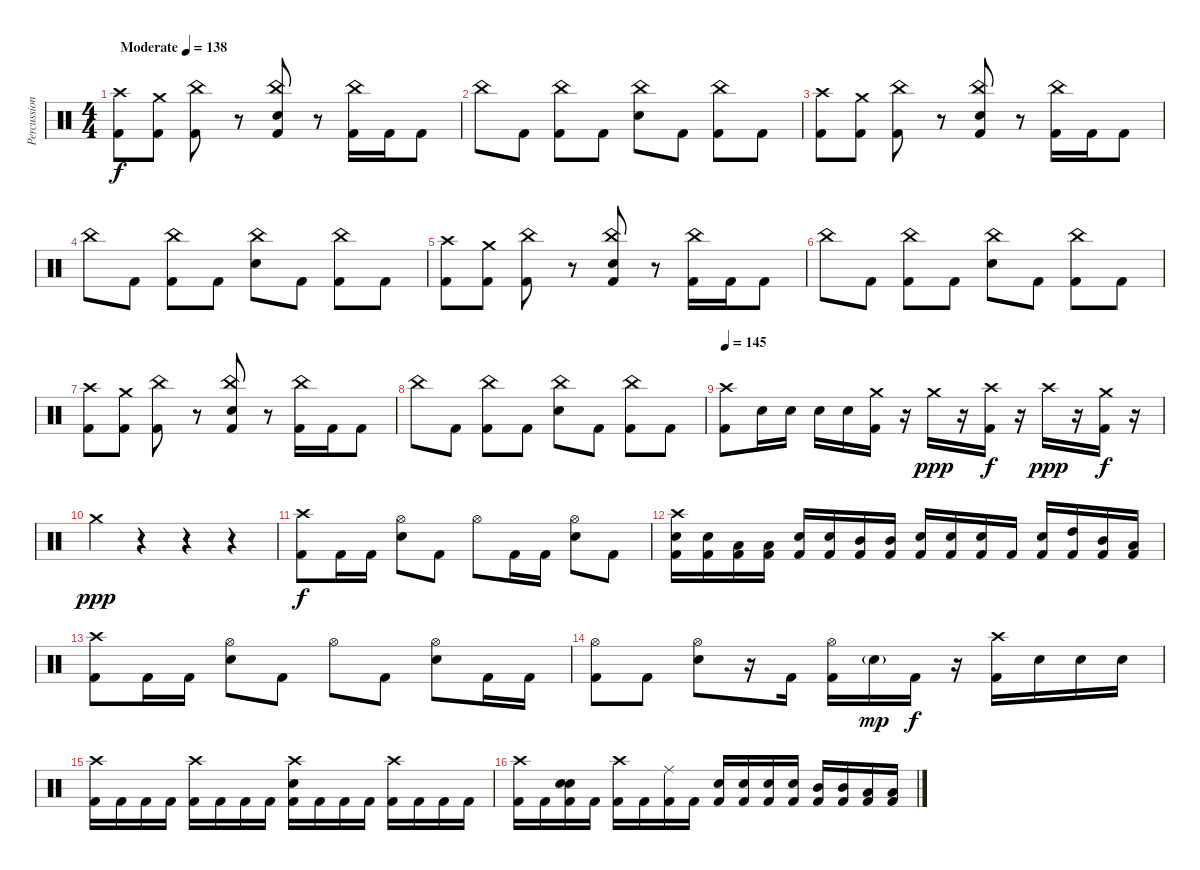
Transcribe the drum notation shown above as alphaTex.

\track ("Percussion" "Percussion") {instrument percussion}
\staff {score}
\articulation defaults
\ts (4 4)
\tempo (138 "Moderate")
\tempo 150
\tempo (138 "Moderate")
\clef neutral
\ks c
("Crash high (hit)" "Kick (hit) 2").8{dy f} ("Crash medium (hit)" "Kick (hit) 2").8 ("China (hit)" "Kick (hit) 2").8 r.8 ("China (hit)" "Electric Snare (hit)" "Kick (hit) 2").8 r.8 ("China (hit)" "Kick (hit) 2").16 "Kick (hit) 2".16 "Kick (hit) 2".8 |
"China (hit)".8 "Kick (hit) 2".8 ("China (hit)" "Kick (hit) 2").8 "Kick (hit) 2".8 ("China (hit)" "Electric Snare (hit)").8 "Kick (hit) 2".8 ("China (hit)" "Kick (hit) 2").8 "Kick (hit) 2".8 |
("Crash high (hit)" "Kick (hit) 2").8 ("Crash medium (hit)" "Kick (hit) 2").8 ("China (hit)" "Kick (hit) 2").8 r.8 ("China (hit)" "Electric Snare (hit)" "Kick (hit) 2").8 r.8 ("China (hit)" "Kick (hit) 2").16 "Kick (hit) 2".16 "Kick (hit) 2".8 |
"China (hit)".8 "Kick (hit) 2".8 ("China (hit)" "Kick (hit) 2").8 "Kick (hit) 2".8 ("China (hit)" "Electric Snare (hit)").8 "Kick (hit) 2".8 ("China (hit)" "Kick (hit) 2").8 "Kick (hit) 2".8 |
("Crash high (hit)" "Kick (hit) 2").8 ("Crash medium (hit)" "Kick (hit) 2").8 ("China (hit)" "Kick (hit) 2").8 r.8 ("China (hit)" "Electric Snare (hit)" "Kick (hit) 2").8 r.8 ("China (hit)" "Kick (hit) 2").16 "Kick (hit) 2".16 "Kick (hit) 2".8 |
"China (hit)".8 "Kick (hit) 2".8 ("China (hit)" "Kick (hit) 2").8 "Kick (hit) 2".8 ("China (hit)" "Electric Snare (hit)").8 "Kick (hit) 2".8 ("China (hit)" "Kick (hit) 2").8 "Kick (hit) 2".8 |
("Crash high (hit)" "Kick (hit) 2").8 ("Crash medium (hit)" "Kick (hit) 2").8 ("China (hit)" "Kick (hit) 2").8 r.8 ("China (hit)" "Electric Snare (hit)" "Kick (hit) 2").8 r.8 ("China (hit)" "Kick (hit) 2").16 "Kick (hit) 2".16 "Kick (hit) 2".8 |
"China (hit)".8 "Kick (hit) 2".8 ("China (hit)" "Kick (hit) 2").8 "Kick (hit) 2".8 ("China (hit)" "Electric Snare (hit)").8 "Kick (hit) 2".8 ("China (hit)" "Kick (hit) 2").8 "Kick (hit) 2".8 |
\tempo 145
("Crash high (hit)" "Kick (hit) 2").8 "Electric Snare (hit)".16 "Electric Snare (hit)".16 "Electric Snare (hit)".16 "Electric Snare (hit)".16 ("Crash medium (hit)" "Kick (hit) 2").16 r.16 "Crash medium (hit)".16{dy ppp} r.16 ("Crash high (hit)" "Kick (hit) 2").16{dy f} r.16 "Crash high (hit)".16{dy ppp} r.16 ("Crash medium (hit)" "Kick (hit) 2").16{dy f} r.16 |
"Crash medium (hit)".4{dy ppp} r.4 r.4 r.4 |
("Crash high (hit)" "Kick (hit) 2").8{dy f} "Kick (hit) 2".16 "Kick (hit) 2".16 ("Hi-Hat (open)" "Electric Snare (hit)").8 "Kick (hit) 2".8 "Hi-Hat (open)".8 "Kick (hit) 2".16 "Kick (hit) 2".16 ("Hi-Hat (open)" "Electric Snare (hit)").8 "Kick (hit) 2".8 |
("Crash high (hit)" "Electric Snare (hit)" "Kick (hit) 2").16 ("Electric Snare (hit)" "Kick (hit) 2").16 ("Low Tom (hit)" "Kick (hit) 2").16 ("Low Tom (hit)" "Kick (hit) 2").16 ("Electric Snare (hit)" "Kick (hit) 2").16 ("Electric Snare (hit)" "Kick (hit) 2").16 ("Mid Tom (hit)" "Kick (hit) 2").16 ("Mid Tom (hit)" "Kick (hit) 2").16 ("Electric Snare (hit)" "Kick (hit) 2").16 ("Electric Snare (hit)" "Kick (hit) 2").16 ("Electric Snare (hit)" "Kick (hit) 2").16 "Kick (hit) 2".16 ("Electric Snare (hit)" "Kick (hit) 2").16 ("High Tom (hit)" "Kick (hit) 2").16 ("Mid Tom (hit)" "Kick (hit) 2").16 ("Low Tom (hit)" "Kick (hit) 2").16 |
("Crash high (hit)" "Kick (hit) 2").8 "Kick (hit) 2".16 "Kick (hit) 2".16 ("Hi-Hat (open)" "Electric Snare (hit)").8 "Kick (hit) 2".8 "Hi-Hat (open)".8 "Kick (hit) 2".8 ("Hi-Hat (open)" "Electric Snare (hit)").8 "Kick (hit) 2".16 "Kick (hit) 2".16 |
("Hi-Hat (open)" "Kick (hit) 2").8 "Kick (hit) 2".8 ("Hi-Hat (open)" "Electric Snare (hit)").8 r.16 "Kick (hit) 2".16 ("Hi-Hat (open)" "Kick (hit) 2").16 "Electric Snare (hit)"{g}.16{dy mp} "Kick (hit) 2".16{dy f} r.16 ("Crash high (hit)" "Kick (hit) 2").16 "Electric Snare (hit)".16 "Electric Snare (hit)".16 "Electric Snare (hit)".16 |
("Crash high (hit)" "Kick (hit) 2").16 "Kick (hit) 2".16 "Kick (hit) 2".16 "Kick (hit) 2".16 ("Crash high (hit)" "Kick (hit) 2").16 "Kick (hit) 2".16 "Kick (hit) 2".16 "Kick (hit) 2".16 ("Crash high (hit)" "Electric Snare (hit)" "Kick (hit) 2").16 "Kick (hit) 2".16 "Kick (hit) 2".16 "Kick (hit) 2".16 ("Crash high (hit)" "Kick (hit) 2").16 "Kick (hit) 2".16 "Kick (hit) 2".16 "Kick (hit) 2".16 |
("Crash high (hit)" "Kick (hit) 2").16 "Kick (hit) 2".16 ("Electric Snare (hit)" "Electric Snare (hit)" "Kick (hit) 2").16 "Kick (hit) 2".16 ("Crash high (hit)" "Kick (hit) 2").16 "Kick (hit) 2".16 ("Ride (middle)" "Kick (hit) 2").16 "Kick (hit) 2".16 ("Electric Snare (hit)" "Kick (hit) 2").16 ("Electric Snare (hit)" "Kick (hit) 2").16 ("Electric Snare (hit)" "Kick (hit) 2").16 ("Electric Snare (hit)" "Kick (hit) 2").16 ("Mid Tom (hit)" "Kick (hit) 2").16 ("Mid Tom (hit)" "Kick (hit) 2").16 ("Low Tom (hit)" "Kick (hit) 2").16 ("Low Tom (hit)" "Kick (hit) 2").16
